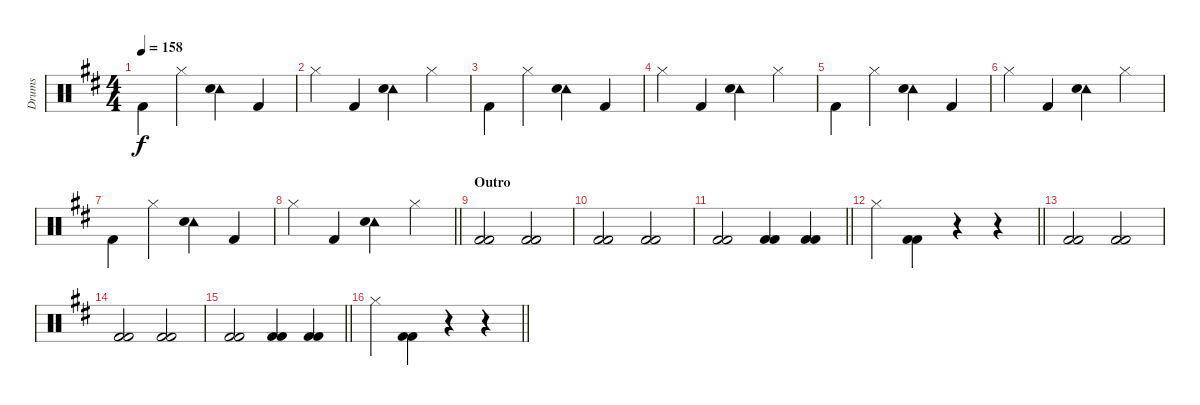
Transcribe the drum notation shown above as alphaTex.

\track ("Drums" "Drums") {instrument percussion}
\staff {score}
\articulation defaults
\ts (4 4)
\tempo 158
\clef neutral
\ks d "Kick (hit) 2".4{dy f beam merge} "Hi-Hat (closed)".4
("Tambourine (hit)" "Snare (hit) 2").4 "Kick (hit) 2".4 |
"Hi-Hat (closed)".4 "Kick (hit) 2".4 ("Tambourine (hit)" "Snare (hit) 2").4 "Hi-Hat (closed)".4 |
"Kick (hit) 2".4{beam merge} "Hi-Hat (closed)".4 ("Tambourine (hit)" "Snare (hit) 2").4 "Kick (hit) 2".4 |
"Hi-Hat (closed)".4 "Kick (hit) 2".4 ("Tambourine (hit)" "Snare (hit) 2").4 "Hi-Hat (closed)".4 |
"Kick (hit) 2".4{beam merge} "Hi-Hat (closed)".4 ("Tambourine (hit)" "Snare (hit) 2").4 "Kick (hit) 2".4 |
"Hi-Hat (closed)".4 "Kick (hit) 2".4 ("Tambourine (hit)" "Snare (hit) 2").4 "Hi-Hat (closed)".4 |
"Kick (hit) 2".4{beam merge} "Hi-Hat (closed)".4 ("Tambourine (hit)" "Snare (hit) 2").4 "Kick (hit) 2".4 |
\barLineRight lightlight "Hi-Hat (closed)".4 "Kick (hit) 2".4
("Tambourine (hit)" "Snare (hit) 2").4 "Hi-Hat (closed)".4 |
\section ("" "Outro")
("Kick (hit) 2" "Kick (hit) 2").2 ("Kick (hit) 2" "Kick (hit) 2").2 |
("Kick (hit) 2" "Kick (hit) 2").2 ("Kick (hit) 2" "Kick (hit) 2").2 |
\barLineRight lightlight
("Kick (hit) 2" "Kick (hit) 2").2 ("Kick (hit) 2" "Kick (hit) 2").4 ("Kick (hit) 2" "Kick (hit) 2").4 |
\barLineRight lightlight "Hi-Hat (closed)".4{beam merge}
("Kick (hit) 2" "Kick (hit) 2").4 r.4 r.4 |
("Kick (hit) 2" "Kick (hit) 2").2 ("Kick (hit) 2" "Kick (hit) 2").2 |
("Kick (hit) 2" "Kick (hit) 2").2 ("Kick (hit) 2" "Kick (hit) 2").2 |
\barLineRight lightlight
("Kick (hit) 2" "Kick (hit) 2").2 ("Kick (hit) 2" "Kick (hit) 2").4 ("Kick (hit) 2" "Kick (hit) 2").4 |
\barLineRight lightlight "Hi-Hat (closed)".4{beam merge}
("Kick (hit) 2" "Kick (hit) 2").4 r.4 r.4
